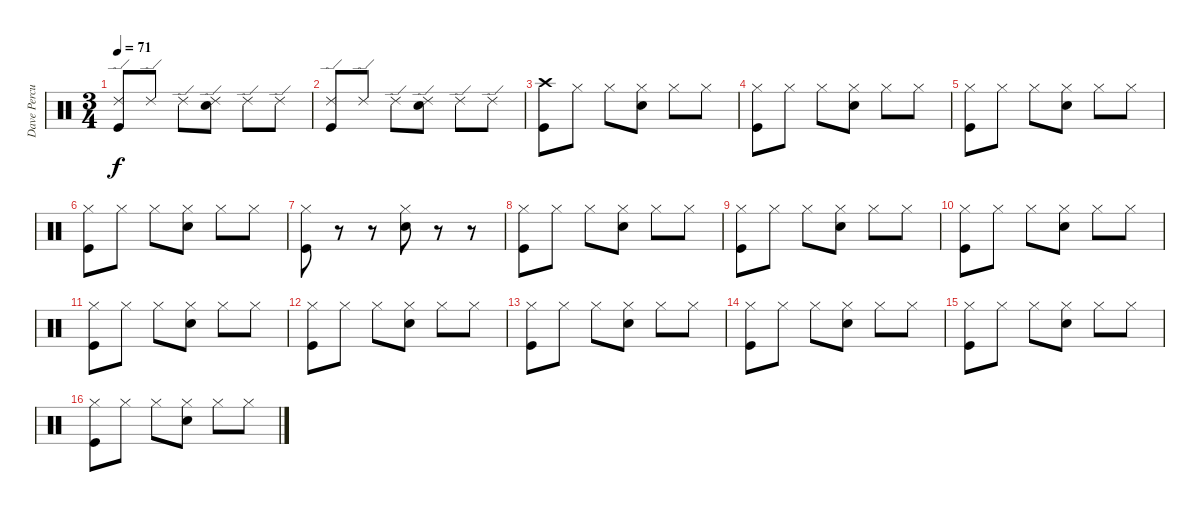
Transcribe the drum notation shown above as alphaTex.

\track ("Dave Percussions" "Dave Percu") {instrument percussion}
\staff {score}
\articulation defaults
\ts (3 4)
\tempo 71
\clef neutral
\ks c
("Ride (edge) 2" "Kick (hit)").8{dy f} "Ride (edge) 2".8 "Ride (edge) 2".8 ("Ride (edge) 2" "Snare (hit) 2").8 "Ride (edge) 2".8 "Ride (edge) 2".8 |
("Ride (edge) 2" "Kick (hit)").8 "Ride (edge) 2".8 "Ride (edge) 2".8 ("Ride (edge) 2" "Snare (hit) 2").8 "Ride (edge) 2".8 "Ride (edge) 2".8 |
("Crash high (hit)" "Kick (hit)").8 "Hi-Hat (closed)".8 "Hi-Hat (closed)".8 ("Hi-Hat (closed)" "Snare (hit) 2").8 "Hi-Hat (closed)".8 "Hi-Hat (closed)".8 |
("Hi-Hat (closed)" "Kick (hit)").8 "Hi-Hat (closed)".8 "Hi-Hat (closed)".8 ("Hi-Hat (closed)" "Snare (hit) 2").8 "Hi-Hat (closed)".8 "Hi-Hat (closed)".8 |
("Hi-Hat (closed)" "Kick (hit)").8 "Hi-Hat (closed)".8 "Hi-Hat (closed)".8 ("Hi-Hat (closed)" "Snare (hit) 2").8 "Hi-Hat (closed)".8 "Hi-Hat (closed)".8 |
("Hi-Hat (closed)" "Kick (hit)").8 "Hi-Hat (closed)".8 "Hi-Hat (closed)".8 ("Hi-Hat (closed)" "Snare (hit) 2").8 "Hi-Hat (closed)".8 "Hi-Hat (closed)".8 |
("Hi-Hat (closed)" "Kick (hit)").8 r.8 r.8 ("Hi-Hat (closed)" "Snare (hit) 2").8 r.8 r.8 |
("Hi-Hat (closed)" "Kick (hit)").8 "Hi-Hat (closed)".8 "Hi-Hat (closed)".8 ("Hi-Hat (closed)" "Snare (hit) 2").8 "Hi-Hat (closed)".8 "Hi-Hat (closed)".8 |
("Hi-Hat (closed)" "Kick (hit)").8 "Hi-Hat (closed)".8 "Hi-Hat (closed)".8 ("Hi-Hat (closed)" "Snare (hit) 2").8 "Hi-Hat (closed)".8 "Hi-Hat (closed)".8 |
("Hi-Hat (closed)" "Kick (hit)").8 "Hi-Hat (closed)".8 "Hi-Hat (closed)".8 ("Hi-Hat (closed)" "Snare (hit) 2").8 "Hi-Hat (closed)".8 "Hi-Hat (closed)".8 |
("Hi-Hat (closed)" "Kick (hit)").8 "Hi-Hat (closed)".8 "Hi-Hat (closed)".8 ("Hi-Hat (closed)" "Snare (hit) 2").8 "Hi-Hat (closed)".8 "Hi-Hat (closed)".8 |
("Hi-Hat (closed)" "Kick (hit)").8 "Hi-Hat (closed)".8 "Hi-Hat (closed)".8 ("Hi-Hat (closed)" "Snare (hit) 2").8 "Hi-Hat (closed)".8 "Hi-Hat (closed)".8 |
("Hi-Hat (closed)" "Kick (hit)").8 "Hi-Hat (closed)".8 "Hi-Hat (closed)".8 ("Hi-Hat (closed)" "Snare (hit) 2").8 "Hi-Hat (closed)".8 "Hi-Hat (closed)".8 |
("Hi-Hat (closed)" "Kick (hit)").8 "Hi-Hat (closed)".8 "Hi-Hat (closed)".8 ("Hi-Hat (closed)" "Snare (hit) 2").8 "Hi-Hat (closed)".8 "Hi-Hat (closed)".8 |
("Hi-Hat (closed)" "Kick (hit)").8 "Hi-Hat (closed)".8 "Hi-Hat (closed)".8 ("Hi-Hat (closed)" "Snare (hit) 2").8 "Hi-Hat (closed)".8 "Hi-Hat (closed)".8 |
("Hi-Hat (closed)" "Kick (hit)").8 "Hi-Hat (closed)".8 "Hi-Hat (closed)".8 ("Hi-Hat (closed)" "Snare (hit) 2").8 "Hi-Hat (closed)".8 "Hi-Hat (closed)".8
